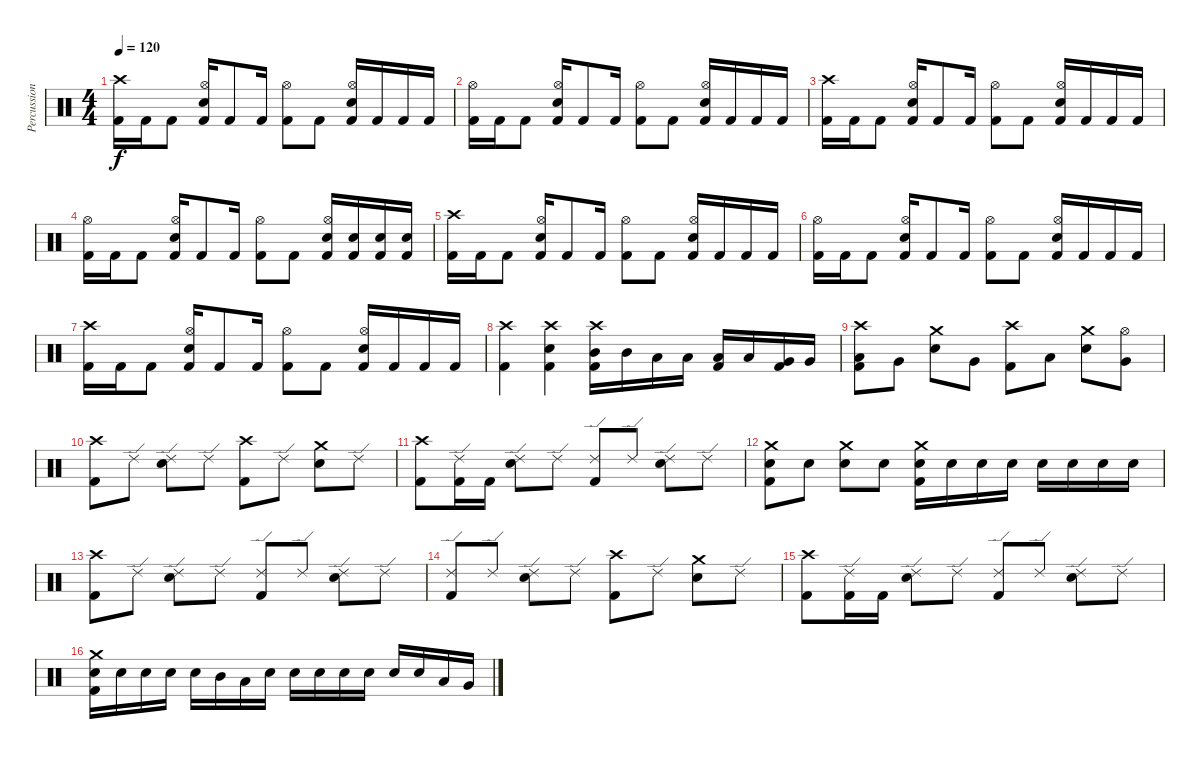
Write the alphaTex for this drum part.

\track ("Percussion" "Percussion") {instrument percussion}
\staff {score}
\articulation defaults
\ts (4 4)
\tempo 120
\clef neutral
\ks c
("Crash high (hit)" "Kick (hit) 2").16{dy f} "Kick (hit) 2".16 "Kick (hit) 2".8 ("Hi-Hat (open)" "Electric Snare (hit)" "Kick (hit) 2").16 "Kick (hit) 2".8 "Kick (hit) 2".16 ("Hi-Hat (open)" "Kick (hit) 2").8 "Kick (hit) 2".8 ("Hi-Hat (open)" "Electric Snare (hit)" "Kick (hit) 2").16 "Kick (hit) 2".16 "Kick (hit) 2".16 "Kick (hit) 2".16 |
("Hi-Hat (open)" "Kick (hit) 2").16 "Kick (hit) 2".16 "Kick (hit) 2".8 ("Hi-Hat (open)" "Electric Snare (hit)" "Kick (hit) 2").16 "Kick (hit) 2".8 "Kick (hit) 2".16 ("Hi-Hat (open)" "Kick (hit) 2").8 "Kick (hit) 2".8 ("Hi-Hat (open)" "Electric Snare (hit)" "Kick (hit) 2").16 "Kick (hit) 2".16 "Kick (hit) 2".16 "Kick (hit) 2".16 |
("Crash high (hit)" "Kick (hit) 2").16 "Kick (hit) 2".16 "Kick (hit) 2".8 ("Hi-Hat (open)" "Electric Snare (hit)" "Kick (hit) 2").16 "Kick (hit) 2".8 "Kick (hit) 2".16 ("Hi-Hat (open)" "Kick (hit) 2").8 "Kick (hit) 2".8 ("Hi-Hat (open)" "Electric Snare (hit)" "Kick (hit) 2").16 "Kick (hit) 2".16 "Kick (hit) 2".16 "Kick (hit) 2".16 |
("Hi-Hat (open)" "Kick (hit) 2").16 "Kick (hit) 2".16 "Kick (hit) 2".8 ("Hi-Hat (open)" "Electric Snare (hit)" "Kick (hit) 2").16 "Kick (hit) 2".8 "Kick (hit) 2".16 ("Hi-Hat (open)" "Kick (hit) 2").8 "Kick (hit) 2".8 ("Hi-Hat (open)" "Electric Snare (hit)" "Kick (hit) 2").16 ("Electric Snare (hit)" "Kick (hit) 2").16 ("Electric Snare (hit)" "Kick (hit) 2").16 ("Electric Snare (hit)" "Kick (hit) 2").16 |
("Crash high (hit)" "Kick (hit) 2").16 "Kick (hit) 2".16 "Kick (hit) 2".8 ("Hi-Hat (open)" "Electric Snare (hit)" "Kick (hit) 2").16 "Kick (hit) 2".8 "Kick (hit) 2".16 ("Hi-Hat (open)" "Kick (hit) 2").8 "Kick (hit) 2".8 ("Hi-Hat (open)" "Electric Snare (hit)" "Kick (hit) 2").16 "Kick (hit) 2".16 "Kick (hit) 2".16 "Kick (hit) 2".16 |
("Hi-Hat (open)" "Kick (hit) 2").16 "Kick (hit) 2".16 "Kick (hit) 2".8 ("Hi-Hat (open)" "Electric Snare (hit)" "Kick (hit) 2").16 "Kick (hit) 2".8 "Kick (hit) 2".16 ("Hi-Hat (open)" "Kick (hit) 2").8 "Kick (hit) 2".8 ("Hi-Hat (open)" "Electric Snare (hit)" "Kick (hit) 2").16 "Kick (hit) 2".16 "Kick (hit) 2".16 "Kick (hit) 2".16 |
("Crash high (hit)" "Kick (hit) 2").16 "Kick (hit) 2".16 "Kick (hit) 2".8 ("Hi-Hat (open)" "Electric Snare (hit)" "Kick (hit) 2").16 "Kick (hit) 2".8 "Kick (hit) 2".16 ("Hi-Hat (open)" "Kick (hit) 2").8 "Kick (hit) 2".8 ("Hi-Hat (open)" "Electric Snare (hit)" "Kick (hit) 2").16 "Kick (hit) 2".16 "Kick (hit) 2".16 "Kick (hit) 2".16 |
("Crash high (hit)" "Kick (hit) 2").4 ("Crash high (hit)" "Electric Snare (hit)" "Kick (hit) 2").4 ("Crash high (hit)" "Mid Tom (hit)" "Kick (hit) 2").16 "Mid Tom (hit)".16 "Low Tom (hit)".16 "Low Tom (hit)".16 ("Low Tom (hit)" "Kick (hit) 2").16 "Low Tom (hit)".16 ("Very Low Tom (hit)" "Kick (hit) 2").16 "Very Low Tom (hit)".16 |
("Crash high (hit)" "Low Tom (hit)" "Kick (hit) 2").8 "Very Low Tom (hit)".8 ("Crash medium (hit)" "Electric Snare (hit)").8 "Very Low Tom (hit)".8 ("Crash high (hit)" "Kick (hit) 2").8 "Low Tom (hit)".8 ("Crash medium (hit)" "Electric Snare (hit)").8 ("Hi-Hat (open)" "Very Low Tom (hit)").8 |
("Crash high (hit)" "Kick (hit) 2").8 "Ride (edge) 2".8 ("Ride (edge) 2" "Electric Snare (hit)").8 "Ride (edge) 2".8 ("Crash high (hit)" "Kick (hit) 2").8 "Ride (edge) 2".8 ("Crash medium (hit)" "Electric Snare (hit)").8 "Ride (edge) 2".8 |
("Crash high (hit)" "Kick (hit) 2").8 ("Ride (edge) 2" "Kick (hit) 2").16 "Kick (hit) 2".16 ("Ride (edge) 2" "Electric Snare (hit)").8 "Ride (edge) 2".8 ("Ride (edge) 2" "Kick (hit) 2").8 "Ride (edge) 2".8 ("Ride (edge) 2" "Electric Snare (hit)").8 "Ride (edge) 2".8 |
("Crash medium (hit)" "Electric Snare (hit)" "Kick (hit) 2").8 "Electric Snare (hit)".8 ("Crash medium (hit)" "Electric Snare (hit)").8 "Electric Snare (hit)".8 ("Crash medium (hit)" "Electric Snare (hit)" "Kick (hit) 2").16 "Electric Snare (hit)".16 "Electric Snare (hit)".16 "Electric Snare (hit)".16 "Electric Snare (hit)".16 "Electric Snare (hit)".16 "Electric Snare (hit)".16 "Electric Snare (hit)".16 |
("Crash high (hit)" "Kick (hit) 2").8 "Ride (edge) 2".8 ("Ride (edge) 2" "Electric Snare (hit)").8 "Ride (edge) 2".8 ("Ride (edge) 2" "Kick (hit) 2").8 "Ride (edge) 2".8 ("Ride (edge) 2" "Electric Snare (hit)").8 "Ride (edge) 2".8 |
("Ride (edge) 2" "Kick (hit) 2").8 "Ride (edge) 2".8 ("Ride (edge) 2" "Electric Snare (hit)").8 "Ride (edge) 2".8 ("Crash high (hit)" "Kick (hit) 2").8 "Ride (edge) 2".8 ("Crash medium (hit)" "Electric Snare (hit)").8 "Ride (edge) 2".8 |
("Crash high (hit)" "Kick (hit) 2").8 ("Ride (edge) 2" "Kick (hit) 2").16 "Kick (hit) 2".16 ("Ride (edge) 2" "Electric Snare (hit)").8 "Ride (edge) 2".8 ("Ride (edge) 2" "Kick (hit) 2").8 "Ride (edge) 2".8 ("Ride (edge) 2" "Electric Snare (hit)").8 "Ride (edge) 2".8 |
("Crash medium (hit)" "Electric Snare (hit)" "Kick (hit) 2").16 "Electric Snare (hit)".16 "Electric Snare (hit)".16 "Electric Snare (hit)".16 "Electric Snare (hit)".16 "Mid Tom (hit)".16 "Low Tom (hit)".16 "Electric Snare (hit)".16 "Electric Snare (hit)".16 "Electric Snare (hit)".16 "Electric Snare (hit)".16 "Electric Snare (hit)".16 "Electric Snare (hit)".16 "Electric Snare (hit)".16 "Low Tom (hit)".16 "Very Low Tom (hit)".16
